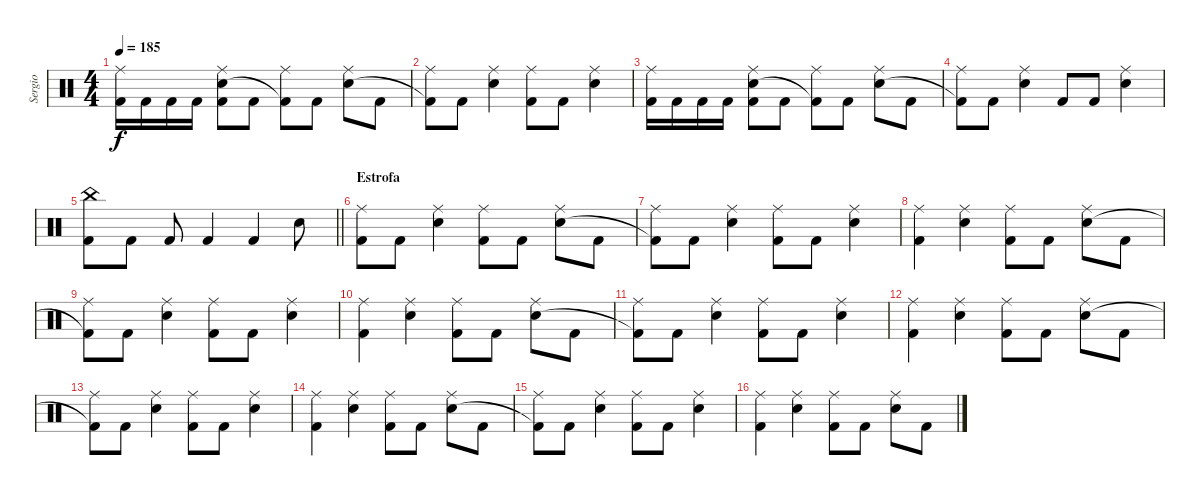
\track ("Sergio" "Sergio") {instrument percussion}
\staff {score}
\articulation defaults
\ts (4 4)
\tempo 185
\clef neutral
\ks c
("Ride (middle)" "Kick (hit) 2").16{dy f} "Kick (hit) 2".16 "Kick (hit) 2".16 "Kick (hit) 2".16 ("Ride (middle)" "Electric Snare (hit)" "Kick (hit) 2").8 "Kick (hit) 2".8 ("Ride (middle)" "Kick (hit) 2"{t}).8 "Kick (hit) 2".8 ("Ride (middle)" "Electric Snare (hit)").8 "Kick (hit) 2".8 |
("Ride (middle)" "Kick (hit) 2"{t}).8 "Kick (hit) 2".8 ("Ride (middle)" "Electric Snare (hit)").4 ("Ride (middle)" "Kick (hit) 2").8 "Kick (hit) 2".8 ("Ride (middle)" "Electric Snare (hit)").4 |
("Ride (middle)" "Kick (hit) 2").16 "Kick (hit) 2".16 "Kick (hit) 2".16 "Kick (hit) 2".16 ("Ride (middle)" "Electric Snare (hit)" "Kick (hit) 2").8 "Kick (hit) 2".8 ("Ride (middle)" "Kick (hit) 2"{t}).8 "Kick (hit) 2".8 ("Ride (middle)" "Electric Snare (hit)").8 "Kick (hit) 2".8 |
("Ride (middle)" "Kick (hit) 2"{t}).8 "Kick (hit) 2".8 ("Ride (middle)" "Electric Snare (hit)").4 "Kick (hit) 2".8 "Kick (hit) 2".8 ("Ride (middle)" "Electric Snare (hit)").4 |
\barLineRight lightlight
("China (hit)" "Kick (hit) 2").8 "Kick (hit) 2".8 "Kick (hit) 2".8 "Kick (hit) 2".4 "Kick (hit) 2".4 "Electric Snare (hit)".8 |
\section ("" "Estrofa")
("Ride (middle)" "Kick (hit) 2").8 "Kick (hit) 2".8 ("Ride (middle)" "Electric Snare (hit)").4 ("Ride (middle)" "Kick (hit) 2").8 "Kick (hit) 2".8 ("Ride (middle)" "Electric Snare (hit)").8 "Kick (hit) 2".8 |
("Ride (middle)" "Kick (hit) 2"{t}).8 "Kick (hit) 2".8 ("Ride (middle)" "Electric Snare (hit)").4 ("Ride (middle)" "Kick (hit) 2").8 "Kick (hit) 2".8 ("Ride (middle)" "Electric Snare (hit)").4 |
("Ride (middle)" "Kick (hit) 2").4 ("Ride (middle)" "Electric Snare (hit)").4 ("Ride (middle)" "Kick (hit) 2").8 "Kick (hit) 2".8 ("Ride (middle)" "Electric Snare (hit)").8 "Kick (hit) 2".8 |
("Ride (middle)" "Kick (hit) 2"{t}).8 "Kick (hit) 2".8 ("Ride (middle)" "Electric Snare (hit)").4 ("Ride (middle)" "Kick (hit) 2").8 "Kick (hit) 2".8 ("Ride (middle)" "Electric Snare (hit)").4 |
("Ride (middle)" "Kick (hit) 2").4 ("Ride (middle)" "Electric Snare (hit)").4 ("Ride (middle)" "Kick (hit) 2").8 "Kick (hit) 2".8 ("Ride (middle)" "Electric Snare (hit)").8 "Kick (hit) 2".8 |
("Ride (middle)" "Kick (hit) 2"{t}).8 "Kick (hit) 2".8 ("Ride (middle)" "Electric Snare (hit)").4 ("Ride (middle)" "Kick (hit) 2").8 "Kick (hit) 2".8 ("Ride (middle)" "Electric Snare (hit)").4 |
("Ride (middle)" "Kick (hit) 2").4 ("Ride (middle)" "Electric Snare (hit)").4 ("Ride (middle)" "Kick (hit) 2").8 "Kick (hit) 2".8 ("Ride (middle)" "Electric Snare (hit)").8 "Kick (hit) 2".8 |
("Ride (middle)" "Kick (hit) 2"{t}).8 "Kick (hit) 2".8 ("Ride (middle)" "Electric Snare (hit)").4 ("Ride (middle)" "Kick (hit) 2").8 "Kick (hit) 2".8 ("Ride (middle)" "Electric Snare (hit)").4 |
("Ride (middle)" "Kick (hit) 2").4 ("Ride (middle)" "Electric Snare (hit)").4 ("Ride (middle)" "Kick (hit) 2").8 "Kick (hit) 2".8 ("Ride (middle)" "Electric Snare (hit)").8 "Kick (hit) 2".8 |
("Ride (middle)" "Kick (hit) 2"{t}).8 "Kick (hit) 2".8 ("Ride (middle)" "Electric Snare (hit)").4 ("Ride (middle)" "Kick (hit) 2").8 "Kick (hit) 2".8 ("Ride (middle)" "Electric Snare (hit)").4 |
("Ride (middle)" "Kick (hit) 2").4 ("Ride (middle)" "Electric Snare (hit)").4 ("Ride (middle)" "Kick (hit) 2").8 "Kick (hit) 2".8 ("Ride (middle)" "Electric Snare (hit)").8 "Kick (hit) 2".8
